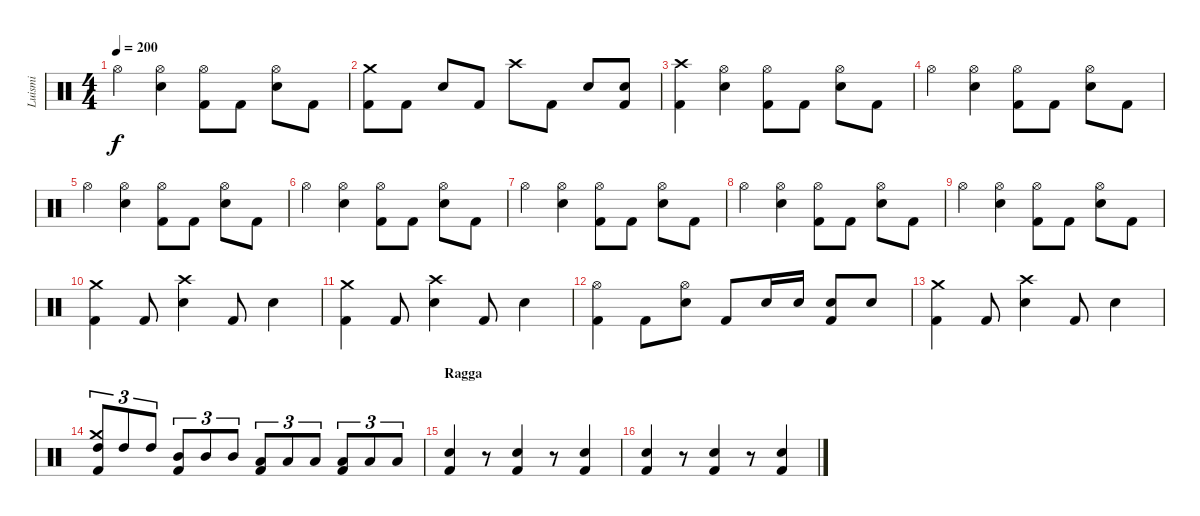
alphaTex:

\track ("Luismi" "Luismi") {instrument percussion}
\staff {score}
\articulation defaults
\ts (4 4)
\tempo 200
\clef neutral
\ks c "Hi-Hat (open)".4{dy f}
("Hi-Hat (open)" "Snare (hit) 2").4 ("Hi-Hat (open)" "Kick (hit) 2").8 "Kick (hit) 2".8 ("Hi-Hat (open)" "Snare (hit) 2").8 "Kick (hit) 2".8 |
("Crash medium (hit)" "Kick (hit) 2").8 "Kick (hit) 2".8 "Snare (hit) 2".8 "Kick (hit) 2".8 "Crash high (hit)".8 "Kick (hit) 2".8 "Snare (hit) 2".8 ("Snare (hit) 2" "Kick (hit) 2").8 |
("Crash high (hit)" "Kick (hit) 2").4 ("Hi-Hat (open)" "Snare (hit) 2").4 ("Hi-Hat (open)" "Kick (hit) 2").8 "Kick (hit) 2".8 ("Hi-Hat (open)" "Snare (hit) 2").8 "Kick (hit) 2".8 |
"Hi-Hat (open)".4 ("Hi-Hat (open)" "Snare (hit) 2").4 ("Hi-Hat (open)" "Kick (hit) 2").8 "Kick (hit) 2".8 ("Hi-Hat (open)" "Snare (hit) 2").8 "Kick (hit) 2".8 |
"Hi-Hat (open)".4 ("Hi-Hat (open)" "Snare (hit) 2").4 ("Hi-Hat (open)" "Kick (hit) 2").8 "Kick (hit) 2".8 ("Hi-Hat (open)" "Snare (hit) 2").8 "Kick (hit) 2".8 |
"Hi-Hat (open)".4 ("Hi-Hat (open)" "Snare (hit) 2").4 ("Hi-Hat (open)" "Kick (hit) 2").8 "Kick (hit) 2".8 ("Hi-Hat (open)" "Snare (hit) 2").8 "Kick (hit) 2".8 |
"Hi-Hat (open)".4 ("Hi-Hat (open)" "Snare (hit) 2").4 ("Hi-Hat (open)" "Kick (hit) 2").8 "Kick (hit) 2".8 ("Hi-Hat (open)" "Snare (hit) 2").8 "Kick (hit) 2".8 |
"Hi-Hat (open)".4 ("Hi-Hat (open)" "Snare (hit) 2").4 ("Hi-Hat (open)" "Kick (hit) 2").8 "Kick (hit) 2".8 ("Hi-Hat (open)" "Snare (hit) 2").8 "Kick (hit) 2".8 |
"Hi-Hat (open)".4 ("Hi-Hat (open)" "Snare (hit) 2").4 ("Hi-Hat (open)" "Kick (hit) 2").8 "Kick (hit) 2".8 ("Hi-Hat (open)" "Snare (hit) 2").8 "Kick (hit) 2".8 |
("Crash medium (hit)" "Kick (hit) 2").4 "Kick (hit) 2".8 ("Crash high (hit)" "Snare (hit) 2").4 "Kick (hit) 2".8 "Snare (hit) 2".4 |
("Crash medium (hit)" "Kick (hit) 2").4 "Kick (hit) 2".8 ("Crash high (hit)" "Snare (hit) 2").4 "Kick (hit) 2".8 "Snare (hit) 2".4 |
("Hi-Hat (open)" "Kick (hit) 2").4 "Kick (hit) 2".8 ("Hi-Hat (open)" "Snare (hit) 2").8 "Kick (hit) 2".8 "Snare (hit) 2".16 "Snare (hit) 2".16 ("Snare (hit) 2" "Kick (hit) 2").8 "Snare (hit) 2".8 |
("Crash medium (hit)" "Kick (hit) 2").4 "Kick (hit) 2".8 ("Crash high (hit)" "Snare (hit) 2").4 "Kick (hit) 2".8 "Snare (hit) 2".4 |
("Crash medium (hit)" "High Tom (hit)" "Kick (hit) 2").8{tu (3 2)} "High Tom (hit)".8{tu (3 2)} "High Tom (hit)".8{tu (3 2)} ("Mid Tom (hit)" "Kick (hit) 2").8{tu (3 2)} "Mid Tom (hit)".8{tu (3 2)} "Mid Tom (hit)".8{tu (3 2)} ("Low Tom (hit)" "Kick (hit) 2").8{tu (3 2)} "Low Tom (hit)".8{tu (3 2)} "Low Tom (hit)".8{tu (3 2)} ("Low Floor Tom (hit)" "Kick (hit) 2").8{tu (3 2)} "Low Floor Tom (hit)".8{tu (3 2)} "Low Floor Tom (hit)".8{tu (3 2)} |
\section ("" "Ragga")
("Snare (hit) 2" "Kick (hit) 2").4 r.8 ("Snare (hit) 2" "Kick (hit) 2").4 r.8 ("Snare (hit) 2" "Kick (hit) 2").4 |
("Snare (hit) 2" "Kick (hit) 2").4 r.8 ("Snare (hit) 2" "Kick (hit) 2").4 r.8 ("Snare (hit) 2" "Kick (hit) 2").4
